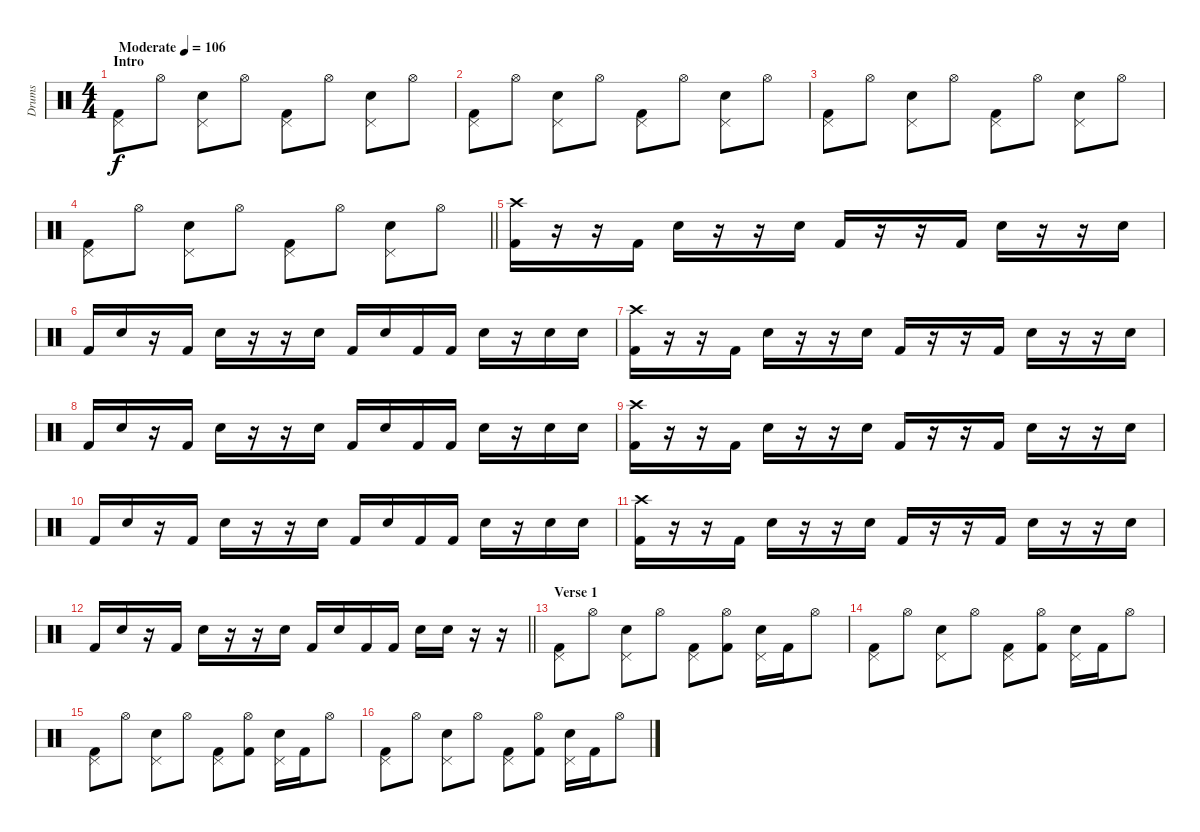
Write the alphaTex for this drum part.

\track ("Drums" "Drums") {instrument percussion}
\staff {score}
\articulation defaults
\ts (4 4)
\section ("" "Intro")
\tempo (106 "Moderate")
\clef neutral
\ks c
("Pedal Hi-Hat (hit)" "Kick (hit) 2").8{dy f volume 4} "Hi-Hat (open)".8{volume 13} ("Pedal Hi-Hat (hit)" "Electric Snare (hit)").8 "Hi-Hat (open)".8 ("Pedal Hi-Hat (hit)" "Kick (hit) 2").8 "Hi-Hat (open)".8 ("Pedal Hi-Hat (hit)" "Electric Snare (hit)").8 "Hi-Hat (open)".8 |
("Pedal Hi-Hat (hit)" "Kick (hit) 2").8 "Hi-Hat (open)".8 ("Pedal Hi-Hat (hit)" "Electric Snare (hit)").8 "Hi-Hat (open)".8 ("Pedal Hi-Hat (hit)" "Kick (hit) 2").8 "Hi-Hat (open)".8 ("Pedal Hi-Hat (hit)" "Electric Snare (hit)").8 "Hi-Hat (open)".8 |
("Pedal Hi-Hat (hit)" "Kick (hit) 2").8 "Hi-Hat (open)".8 ("Pedal Hi-Hat (hit)" "Electric Snare (hit)").8 "Hi-Hat (open)".8 ("Pedal Hi-Hat (hit)" "Kick (hit) 2").8 "Hi-Hat (open)".8 ("Pedal Hi-Hat (hit)" "Electric Snare (hit)").8 "Hi-Hat (open)".8 |
\barLineRight lightlight
("Pedal Hi-Hat (hit)" "Kick (hit) 2").8 "Hi-Hat (open)".8 ("Pedal Hi-Hat (hit)" "Electric Snare (hit)").8 "Hi-Hat (open)".8 ("Pedal Hi-Hat (hit)" "Kick (hit) 2").8 "Hi-Hat (open)".8 ("Pedal Hi-Hat (hit)" "Electric Snare (hit)").8 "Hi-Hat (open)".8 |
("Crash high (hit)" "Kick (hit) 2").16 r.16 r.16 "Kick (hit) 2".16 "Snare (hit) 2".16 r.16 r.16 "Snare (hit) 2".16 "Kick (hit) 2".16 r.16 r.16 "Kick (hit) 2".16 "Snare (hit) 2".16 r.16 r.16 "Snare (hit) 2".16 |
"Kick (hit) 2".16 "Snare (hit) 2".16 r.16 "Kick (hit) 2".16 "Snare (hit) 2".16 r.16 r.16 "Snare (hit) 2".16 "Kick (hit) 2".16 "Snare (hit) 2".16 "Kick (hit) 2".16 "Kick (hit) 2".16 "Snare (hit) 2".16 r.16 "Snare (hit) 2".16 "Snare (hit) 2".16 |
("Crash high (hit)" "Kick (hit) 2").16 r.16 r.16 "Kick (hit) 2".16 "Snare (hit) 2".16 r.16 r.16 "Snare (hit) 2".16 "Kick (hit) 2".16 r.16 r.16 "Kick (hit) 2".16 "Snare (hit) 2".16 r.16 r.16 "Snare (hit) 2".16 |
"Kick (hit) 2".16 "Snare (hit) 2".16 r.16 "Kick (hit) 2".16 "Snare (hit) 2".16 r.16 r.16 "Snare (hit) 2".16 "Kick (hit) 2".16 "Snare (hit) 2".16 "Kick (hit) 2".16 "Kick (hit) 2".16 "Snare (hit) 2".16 r.16 "Snare (hit) 2".16 "Snare (hit) 2".16 |
("Crash high (hit)" "Kick (hit) 2").16 r.16 r.16 "Kick (hit) 2".16 "Snare (hit) 2".16 r.16 r.16 "Snare (hit) 2".16 "Kick (hit) 2".16 r.16 r.16 "Kick (hit) 2".16 "Snare (hit) 2".16 r.16 r.16 "Snare (hit) 2".16 |
"Kick (hit) 2".16 "Snare (hit) 2".16 r.16 "Kick (hit) 2".16 "Snare (hit) 2".16 r.16 r.16 "Snare (hit) 2".16 "Kick (hit) 2".16 "Snare (hit) 2".16 "Kick (hit) 2".16 "Kick (hit) 2".16 "Snare (hit) 2".16 r.16 "Snare (hit) 2".16 "Snare (hit) 2".16 |
("Crash high (hit)" "Kick (hit) 2").16 r.16 r.16 "Kick (hit) 2".16 "Snare (hit) 2".16 r.16 r.16 "Snare (hit) 2".16 "Kick (hit) 2".16 r.16 r.16 "Kick (hit) 2".16 "Snare (hit) 2".16 r.16 r.16 "Snare (hit) 2".16 |
\barLineRight lightlight "Kick (hit) 2".16 "Snare (hit) 2".16
r.16 "Kick (hit) 2".16 "Snare (hit) 2".16 r.16 r.16 "Snare (hit) 2".16 "Kick (hit) 2".16 "Snare (hit) 2".16 "Kick (hit) 2".16 "Kick (hit) 2".16 "Snare (hit) 2".16 "Snare (hit) 2".16 r.16 r.16 |
\section ("" "Verse 1")
("Pedal Hi-Hat (hit)" "Kick (hit) 2").8 "Hi-Hat (open)".8 ("Pedal Hi-Hat (hit)" "Electric Snare (hit)").8 "Hi-Hat (open)".8 ("Pedal Hi-Hat (hit)" "Kick (hit) 2").8 ("Hi-Hat (open)" "Kick (hit) 2").8 ("Pedal Hi-Hat (hit)" "Electric Snare (hit)").16 "Kick (hit) 2".16 "Hi-Hat (open)".8 |
("Pedal Hi-Hat (hit)" "Kick (hit) 2").8 "Hi-Hat (open)".8 ("Pedal Hi-Hat (hit)" "Electric Snare (hit)").8 "Hi-Hat (open)".8 ("Pedal Hi-Hat (hit)" "Kick (hit) 2").8 ("Hi-Hat (open)" "Kick (hit) 2").8 ("Pedal Hi-Hat (hit)" "Electric Snare (hit)").16 "Kick (hit) 2".16 "Hi-Hat (open)".8 |
("Pedal Hi-Hat (hit)" "Kick (hit) 2").8 "Hi-Hat (open)".8 ("Pedal Hi-Hat (hit)" "Electric Snare (hit)").8 "Hi-Hat (open)".8 ("Pedal Hi-Hat (hit)" "Kick (hit) 2").8 ("Hi-Hat (open)" "Kick (hit) 2").8 ("Pedal Hi-Hat (hit)" "Electric Snare (hit)").16 "Kick (hit) 2".16 "Hi-Hat (open)".8 |
("Pedal Hi-Hat (hit)" "Kick (hit) 2").8 "Hi-Hat (open)".8 ("Pedal Hi-Hat (hit)" "Electric Snare (hit)").8 "Hi-Hat (open)".8 ("Pedal Hi-Hat (hit)" "Kick (hit) 2").8 ("Hi-Hat (open)" "Kick (hit) 2").8 ("Pedal Hi-Hat (hit)" "Electric Snare (hit)").16 "Kick (hit) 2".16 "Hi-Hat (open)".8
